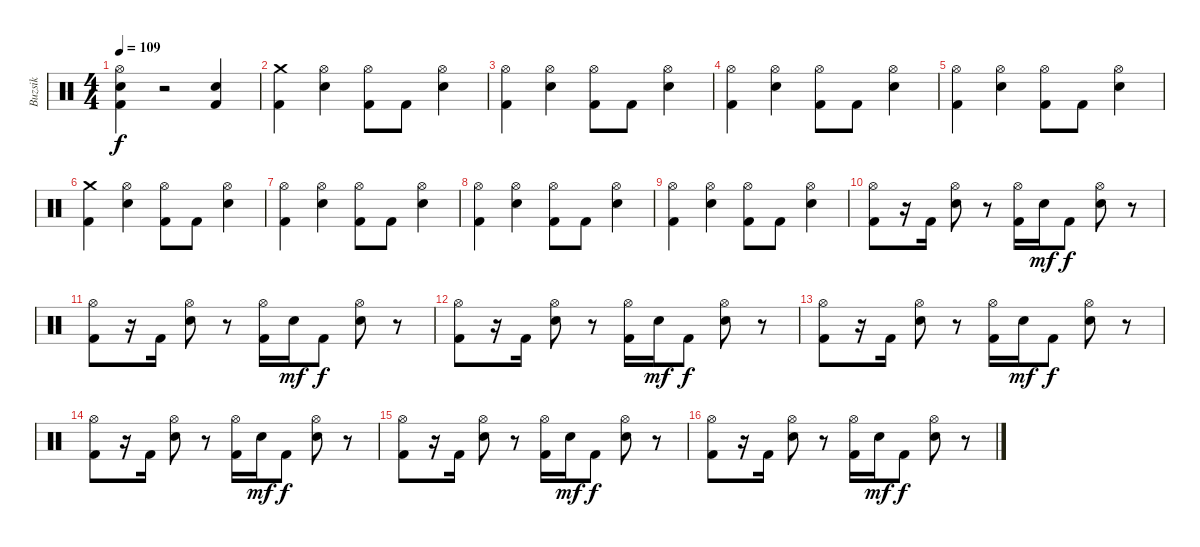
\track ("Buzsik" "Buzsik") {instrument percussion}
\staff {score}
\articulation defaults
\ts (4 4)
\tempo 109
\clef neutral
\ks c
("Hi-Hat (open)" "Electric Snare (hit)" "Kick (hit) 2").4{dy f} r.2 ("Electric Snare (hit)" "Kick (hit) 2").4 |
("Crash medium (hit)" "Kick (hit) 2").4 ("Hi-Hat (open)" "Electric Snare (hit)").4 ("Hi-Hat (open)" "Kick (hit) 2").8 "Kick (hit) 2".8 ("Hi-Hat (open)" "Electric Snare (hit)").4 |
("Hi-Hat (open)" "Kick (hit) 2").4 ("Hi-Hat (open)" "Electric Snare (hit)").4 ("Hi-Hat (open)" "Kick (hit) 2").8 "Kick (hit) 2".8 ("Hi-Hat (open)" "Electric Snare (hit)").4 |
("Hi-Hat (open)" "Kick (hit) 2").4 ("Hi-Hat (open)" "Electric Snare (hit)").4 ("Hi-Hat (open)" "Kick (hit) 2").8 "Kick (hit) 2".8 ("Hi-Hat (open)" "Electric Snare (hit)").4 |
("Hi-Hat (open)" "Kick (hit) 2").4 ("Hi-Hat (open)" "Electric Snare (hit)").4 ("Hi-Hat (open)" "Kick (hit) 2").8 "Kick (hit) 2".8 ("Hi-Hat (open)" "Electric Snare (hit)").4 |
("Crash medium (hit)" "Kick (hit) 2").4 ("Hi-Hat (open)" "Electric Snare (hit)").4 ("Hi-Hat (open)" "Kick (hit) 2").8 "Kick (hit) 2".8 ("Hi-Hat (open)" "Electric Snare (hit)").4 |
("Hi-Hat (open)" "Kick (hit) 2").4 ("Hi-Hat (open)" "Electric Snare (hit)").4 ("Hi-Hat (open)" "Kick (hit) 2").8 "Kick (hit) 2".8 ("Hi-Hat (open)" "Electric Snare (hit)").4 |
("Hi-Hat (open)" "Kick (hit) 2").4 ("Hi-Hat (open)" "Electric Snare (hit)").4 ("Hi-Hat (open)" "Kick (hit) 2").8 "Kick (hit) 2".8 ("Hi-Hat (open)" "Electric Snare (hit)").4 |
("Hi-Hat (open)" "Kick (hit) 2").4 ("Hi-Hat (open)" "Electric Snare (hit)").4 ("Hi-Hat (open)" "Kick (hit) 2").8 "Kick (hit) 2".8 ("Hi-Hat (open)" "Electric Snare (hit)").4 |
("Hi-Hat (open)" "Kick (hit) 2").8 r.16 "Kick (hit) 2".16 ("Hi-Hat (open)" "Electric Snare (hit)").8 r.8 ("Hi-Hat (open)" "Kick (hit) 2").16 "Electric Snare (hit)".16{dy mf} "Kick (hit) 2".8{dy f} ("Hi-Hat (open)" "Electric Snare (hit)").8 r.8 |
("Hi-Hat (open)" "Kick (hit) 2").8 r.16 "Kick (hit) 2".16 ("Hi-Hat (open)" "Electric Snare (hit)").8 r.8 ("Hi-Hat (open)" "Kick (hit) 2").16 "Electric Snare (hit)".16{dy mf} "Kick (hit) 2".8{dy f} ("Hi-Hat (open)" "Electric Snare (hit)").8 r.8 |
("Hi-Hat (open)" "Kick (hit) 2").8 r.16 "Kick (hit) 2".16 ("Hi-Hat (open)" "Electric Snare (hit)").8 r.8 ("Hi-Hat (open)" "Kick (hit) 2").16 "Electric Snare (hit)".16{dy mf} "Kick (hit) 2".8{dy f} ("Hi-Hat (open)" "Electric Snare (hit)").8 r.8 |
("Hi-Hat (open)" "Kick (hit) 2").8 r.16 "Kick (hit) 2".16 ("Hi-Hat (open)" "Electric Snare (hit)").8 r.8 ("Hi-Hat (open)" "Kick (hit) 2").16 "Electric Snare (hit)".16{dy mf} "Kick (hit) 2".8{dy f} ("Hi-Hat (open)" "Electric Snare (hit)").8 r.8 |
("Hi-Hat (open)" "Kick (hit) 2").8 r.16 "Kick (hit) 2".16 ("Hi-Hat (open)" "Electric Snare (hit)").8 r.8 ("Hi-Hat (open)" "Kick (hit) 2").16 "Electric Snare (hit)".16{dy mf} "Kick (hit) 2".8{dy f} ("Hi-Hat (open)" "Electric Snare (hit)").8 r.8 |
("Hi-Hat (open)" "Kick (hit) 2").8 r.16 "Kick (hit) 2".16 ("Hi-Hat (open)" "Electric Snare (hit)").8 r.8 ("Hi-Hat (open)" "Kick (hit) 2").16 "Electric Snare (hit)".16{dy mf} "Kick (hit) 2".8{dy f} ("Hi-Hat (open)" "Electric Snare (hit)").8 r.8 |
("Hi-Hat (open)" "Kick (hit) 2").8 r.16 "Kick (hit) 2".16 ("Hi-Hat (open)" "Electric Snare (hit)").8 r.8 ("Hi-Hat (open)" "Kick (hit) 2").16 "Electric Snare (hit)".16{dy mf} "Kick (hit) 2".8{dy f} ("Hi-Hat (open)" "Electric Snare (hit)").8 r.8
